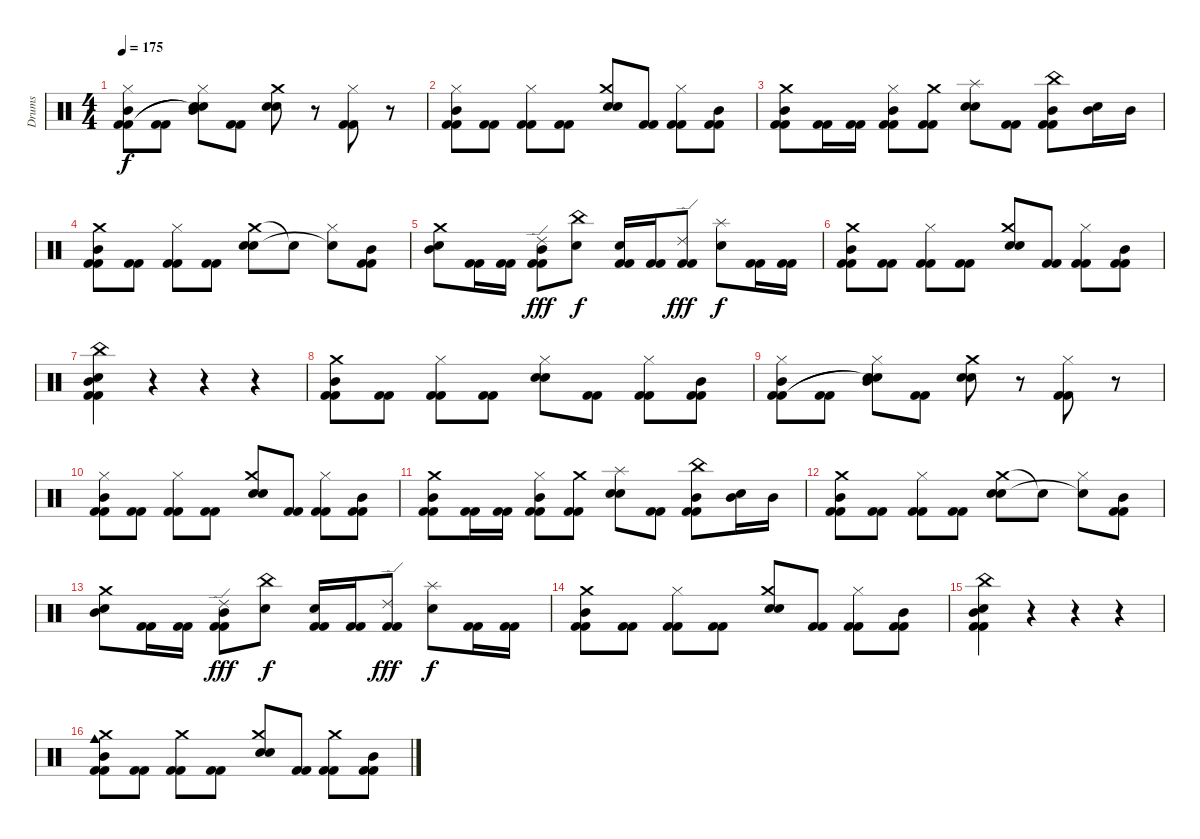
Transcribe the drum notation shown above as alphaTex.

\track ("Drums" "Drums") {instrument percussion}
\staff {score}
\articulation defaults
\ts (4 4)
\tempo 175
\clef neutral
\ks c
("Hi-Hat (closed)" "Mid Tom (hit)" "Kick (hit) 2" "Kick (hit) 2").8{dy f} ("Kick (hit) 2" "Kick (hit) 2").8 ("Hi-Hat (closed)" "Mid Tom (hit)" "Snare (hit)"{t} "Snare (hit)"{t}).8 ("Kick (hit) 2" "Kick (hit) 2").8 ("Crash medium (hit)" "Electric Snare (hit)" "Snare (hit) 2").8 r.8 ("Hi-Hat (closed)" "Kick (hit) 2" "Kick (hit) 2").8 r.8 |
("Hi-Hat (closed)" "Mid Tom (hit)" "Kick (hit) 2" "Kick (hit) 2").8 ("Kick (hit) 2" "Kick (hit) 2").8 ("Hi-Hat (closed)" "Kick (hit) 2" "Kick (hit) 2").8 ("Kick (hit) 2" "Kick (hit) 2").8 ("Crash medium (hit)" "Electric Snare (hit)" "Snare (hit) 2").8 ("Kick (hit) 2" "Kick (hit) 2").8 ("Hi-Hat (closed)" "Kick (hit) 2" "Kick (hit) 2").8 ("Mid Tom (hit)" "Kick (hit) 2" "Kick (hit) 2").8 |
("Crash medium (hit)" "Mid Tom (hit)" "Kick (hit) 2" "Kick (hit) 2").8 ("Kick (hit) 2" "Kick (hit) 2").16 ("Kick (hit) 2" "Kick (hit) 2").16 ("Hi-Hat (closed)" "Mid Tom (hit)" "Kick (hit) 2" "Kick (hit) 2").8 ("Crash medium (hit)" "Kick (hit) 2" "Kick (hit) 2").8 ("Splash (hit)" "Electric Snare (hit)" "Snare (hit) 2").8 ("Kick (hit) 2" "Kick (hit) 2").8 ("China (hit)" "Mid Tom (hit)" "Kick (hit) 2" "Kick (hit) 2").8 ("Mid Tom (hit)" "Snare (hit) 2").16 "Mid Tom (hit)".16 |
("Crash medium (hit)" "Mid Tom (hit)" "Kick (hit) 2" "Kick (hit) 2").8 ("Kick (hit) 2" "Kick (hit) 2").8 ("Hi-Hat (closed)" "Kick (hit) 2" "Kick (hit) 2").8 ("Kick (hit) 2" "Kick (hit) 2").8 ("Crash medium (hit)" "Electric Snare (hit)" "Snare (hit) 2").8 "Snare (hit)"{t}.8 ("Hi-Hat (closed)" "Snare (hit)"{t}).8 ("Mid Tom (hit)" "Kick (hit) 2" "Kick (hit) 2").8 |
("Crash medium (hit)" "Mid Tom (hit)" "Snare (hit) 2").8 ("Kick (hit) 2" "Kick (hit) 2").16 ("Kick (hit) 2" "Kick (hit) 2").16 ("Ride (edge) 2" "Mid Tom (hit)" "Kick (hit) 2" "Kick (hit) 2").8{dy fff} ("China (hit)" "Snare (hit) 2").8{dy f} ("Electric Snare (hit)" "Kick (hit) 2" "Kick (hit) 2").16 ("Kick (hit) 2" "Kick (hit) 2").16 ("Ride (edge) 2" "Kick (hit) 2" "Kick (hit) 2").8{dy fff} ("Splash (hit)" "Snare (hit) 2").8{dy f} ("Kick (hit) 2" "Kick (hit) 2").16 ("Kick (hit) 2" "Kick (hit) 2").16 |
("Crash medium (hit)" "Mid Tom (hit)" "Kick (hit) 2" "Kick (hit) 2").8 ("Kick (hit) 2" "Kick (hit) 2").8 ("Hi-Hat (closed)" "Kick (hit) 2" "Kick (hit) 2").8 ("Kick (hit) 2" "Kick (hit) 2").8 ("Crash medium (hit)" "Electric Snare (hit)" "Snare (hit) 2").8 ("Kick (hit) 2" "Kick (hit) 2").8 ("Hi-Hat (closed)" "Kick (hit) 2" "Kick (hit) 2").8 ("Mid Tom (hit)" "Kick (hit) 2" "Kick (hit) 2").8 |
("China (hit)" "Electric Snare (hit)" "Mid Tom (hit)" "Kick (hit) 2" "Kick (hit) 2").4 r.4 r.4 r.4 |
("Crash medium (hit)" "Mid Tom (hit)" "Kick (hit) 2" "Kick (hit) 2").8 ("Kick (hit) 2" "Kick (hit) 2").8 ("Hi-Hat (closed)" "Kick (hit) 2" "Kick (hit) 2").8 ("Kick (hit) 2" "Kick (hit) 2").8 ("Hi-Hat (closed)" "Electric Snare (hit)" "Snare (hit) 2").8 ("Kick (hit) 2" "Kick (hit) 2").8 ("Hi-Hat (closed)" "Kick (hit) 2" "Kick (hit) 2").8 ("Mid Tom (hit)" "Kick (hit) 2" "Kick (hit) 2").8 |
("Hi-Hat (closed)" "Mid Tom (hit)" "Kick (hit) 2" "Kick (hit) 2").8 ("Kick (hit) 2" "Kick (hit) 2").8 ("Hi-Hat (closed)" "Mid Tom (hit)" "Snare (hit)"{t} "Snare (hit)"{t}).8 ("Kick (hit) 2" "Kick (hit) 2").8 ("Crash medium (hit)" "Electric Snare (hit)" "Snare (hit) 2").8 r.8 ("Hi-Hat (closed)" "Kick (hit) 2" "Kick (hit) 2").8 r.8 |
("Hi-Hat (closed)" "Mid Tom (hit)" "Kick (hit) 2" "Kick (hit) 2").8 ("Kick (hit) 2" "Kick (hit) 2").8 ("Hi-Hat (closed)" "Kick (hit) 2" "Kick (hit) 2").8 ("Kick (hit) 2" "Kick (hit) 2").8 ("Crash medium (hit)" "Electric Snare (hit)" "Snare (hit) 2").8 ("Kick (hit) 2" "Kick (hit) 2").8 ("Hi-Hat (closed)" "Kick (hit) 2" "Kick (hit) 2").8 ("Mid Tom (hit)" "Kick (hit) 2" "Kick (hit) 2").8 |
("Crash medium (hit)" "Mid Tom (hit)" "Kick (hit) 2" "Kick (hit) 2").8 ("Kick (hit) 2" "Kick (hit) 2").16 ("Kick (hit) 2" "Kick (hit) 2").16 ("Hi-Hat (closed)" "Mid Tom (hit)" "Kick (hit) 2" "Kick (hit) 2").8 ("Crash medium (hit)" "Kick (hit) 2" "Kick (hit) 2").8 ("Splash (hit)" "Electric Snare (hit)" "Snare (hit) 2").8 ("Kick (hit) 2" "Kick (hit) 2").8 ("China (hit)" "Mid Tom (hit)" "Kick (hit) 2" "Kick (hit) 2").8 ("Mid Tom (hit)" "Snare (hit) 2").16 "Mid Tom (hit)".16 |
("Crash medium (hit)" "Mid Tom (hit)" "Kick (hit) 2" "Kick (hit) 2").8 ("Kick (hit) 2" "Kick (hit) 2").8 ("Hi-Hat (closed)" "Kick (hit) 2" "Kick (hit) 2").8 ("Kick (hit) 2" "Kick (hit) 2").8 ("Crash medium (hit)" "Electric Snare (hit)" "Snare (hit) 2").8 "Snare (hit)"{t}.8 ("Hi-Hat (closed)" "Snare (hit)"{t}).8 ("Mid Tom (hit)" "Kick (hit) 2" "Kick (hit) 2").8 |
("Crash medium (hit)" "Mid Tom (hit)" "Snare (hit) 2").8 ("Kick (hit) 2" "Kick (hit) 2").16 ("Kick (hit) 2" "Kick (hit) 2").16 ("Ride (edge) 2" "Mid Tom (hit)" "Kick (hit) 2" "Kick (hit) 2").8{dy fff} ("China (hit)" "Snare (hit) 2").8{dy f} ("Electric Snare (hit)" "Kick (hit) 2" "Kick (hit) 2").16 ("Kick (hit) 2" "Kick (hit) 2").16 ("Ride (edge) 2" "Kick (hit) 2" "Kick (hit) 2").8{dy fff} ("Splash (hit)" "Snare (hit) 2").8{dy f} ("Kick (hit) 2" "Kick (hit) 2").16 ("Kick (hit) 2" "Kick (hit) 2").16 |
("Crash medium (hit)" "Mid Tom (hit)" "Kick (hit) 2" "Kick (hit) 2").8 ("Kick (hit) 2" "Kick (hit) 2").8 ("Hi-Hat (closed)" "Kick (hit) 2" "Kick (hit) 2").8 ("Kick (hit) 2" "Kick (hit) 2").8 ("Crash medium (hit)" "Electric Snare (hit)" "Snare (hit) 2").8 ("Kick (hit) 2" "Kick (hit) 2").8 ("Hi-Hat (closed)" "Kick (hit) 2" "Kick (hit) 2").8 ("Mid Tom (hit)" "Kick (hit) 2" "Kick (hit) 2").8 |
("China (hit)" "Electric Snare (hit)" "Mid Tom (hit)" "Kick (hit) 2" "Kick (hit) 2").4 r.4 r.4 r.4 |
("Crash medium (hit)" "Mid Tom (hit)" "Cowbell medium (hit)" "Kick (hit) 2" "Kick (hit) 2").8 ("Kick (hit) 2" "Kick (hit) 2").8 ("Crash medium (hit)" "Kick (hit) 2" "Kick (hit) 2").8 ("Kick (hit) 2" "Kick (hit) 2").8 ("Crash medium (hit)" "Electric Snare (hit)" "Snare (hit) 2").8 ("Kick (hit) 2" "Kick (hit) 2").8 ("Crash medium (hit)" "Kick (hit) 2" "Kick (hit) 2").8 ("Mid Tom (hit)" "Kick (hit) 2" "Kick (hit) 2").8
